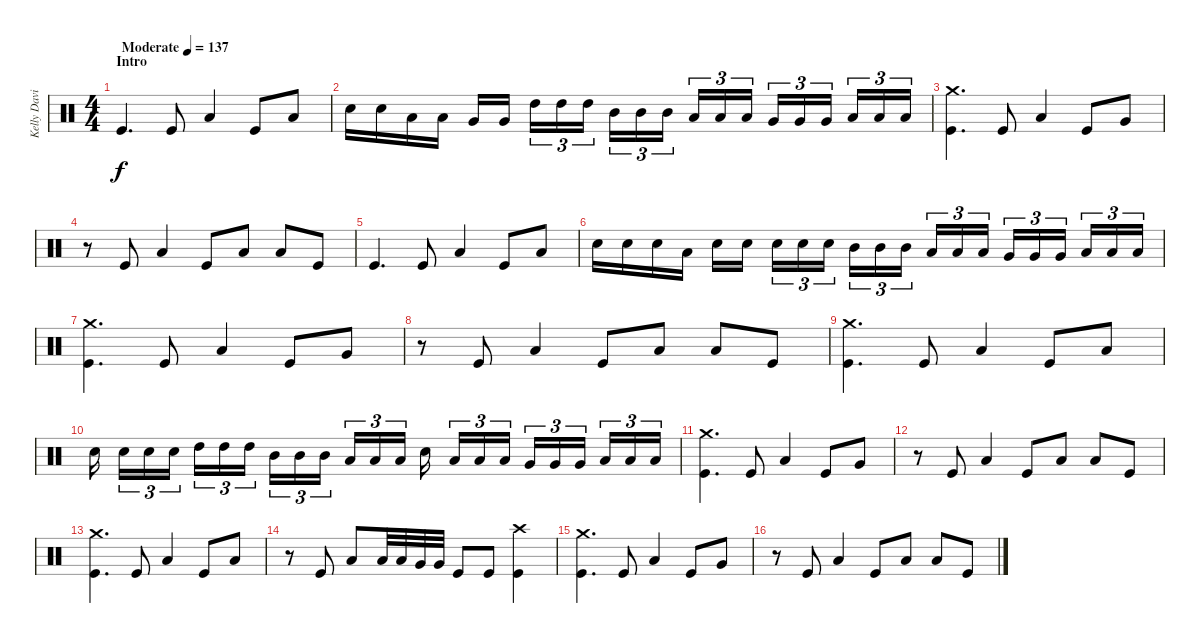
\track ("Kelly David Smith" "Kelly Davi") {instrument percussion}
\staff {score}
\articulation defaults
\ts (4 4)
\section ("" "Intro")
\tempo (137 "Moderate")
\clef neutral
\ks c "Kick (hit)".4{d dy f volume 0} "Kick (hit)".8{volume 13} "Low Tom (hit)".4 "Kick (hit)".8 "Low Tom (hit)".8
|
"Electric Snare (hit)".16 "Electric Snare (hit)".16 "Low Tom (hit)".16 "Low Tom (hit)".16 "Very Low Tom (hit)".16 "Very Low Tom (hit)".16{beam splitsecondary} "High Tom (hit)".16{tu (3 2)} "High Tom (hit)".16{tu (3 2)} "High Tom (hit)".16{tu (3 2)} "Mid Tom (hit)".16{tu (3 2)} "Mid Tom (hit)".16{tu (3 2)} "Mid Tom (hit)".16{tu (3 2) beam splitsecondary} "Low Tom (hit)".16{tu (3 2)} "Low Tom (hit)".16{tu (3 2)} "Low Tom (hit)".16{tu (3 2)} "Very Low Tom (hit)".16{tu (3 2)} "Very Low Tom (hit)".16{tu (3 2)} "Very Low Tom (hit)".16{tu (3 2) beam splitsecondary} "Low Floor Tom (hit)".16{tu (3 2)} "Low Floor Tom (hit)".16{tu (3 2)} "Low Floor Tom (hit)".16{tu (3 2)} |
("Crash medium (hit)" "Kick (hit)").4{d} "Kick (hit)".8 "Low Tom (hit)".4 "Kick (hit)".8 "Very Low Tom (hit)".8 |
r.8 "Kick (hit)".8 "Low Floor Tom (hit)".4 "Kick (hit)".8 "Low Tom (hit)".8 "Low Tom (hit)".8 "Kick (hit)".8 |
"Kick (hit)".4{d} "Kick (hit)".8 "Low Tom (hit)".4 "Kick (hit)".8 "Low Tom (hit)".8 |
"Electric Snare (hit)".16 "Electric Snare (hit)".16 "Electric Snare (hit)".16 "Low Tom (hit)".16 "Electric Snare (hit)".16 "Electric Snare (hit)".16{beam splitsecondary} "Electric Snare (hit)".16{tu (3 2)} "Electric Snare (hit)".16{tu (3 2)} "Electric Snare (hit)".16{tu (3 2)} "Mid Tom (hit)".16{tu (3 2)} "Mid Tom (hit)".16{tu (3 2)} "Mid Tom (hit)".16{tu (3 2) beam splitsecondary} "Low Tom (hit)".16{tu (3 2)} "Low Tom (hit)".16{tu (3 2)} "Low Tom (hit)".16{tu (3 2)} "Very Low Tom (hit)".16{tu (3 2)} "Very Low Tom (hit)".16{tu (3 2)} "Very Low Tom (hit)".16{tu (3 2) beam splitsecondary} "Low Floor Tom (hit)".16{tu (3 2)} "Low Floor Tom (hit)".16{tu (3 2)} "Low Floor Tom (hit)".16{tu (3 2)} |
("Crash medium (hit)" "Kick (hit)").4{d} "Kick (hit)".8 "Low Tom (hit)".4 "Kick (hit)".8 "Very Low Tom (hit)".8 |
r.8 "Kick (hit)".8 "Low Floor Tom (hit)".4 "Kick (hit)".8 "Low Tom (hit)".8 "Low Tom (hit)".8 "Kick (hit)".8 |
("Crash medium (hit)" "Kick (hit)").4{d} "Kick (hit)".8 "Low Tom (hit)".4 "Kick (hit)".8 "Low Tom (hit)".8 |
"Electric Snare (hit)".16{beam splitsecondary} "Electric Snare (hit)".16{tu (3 2)} "Electric Snare (hit)".16{tu (3 2)} "Electric Snare (hit)".16{tu (3 2) beam splitsecondary} "High Tom (hit)".16{tu (3 2)} "High Tom (hit)".16{tu (3 2)} "High Tom (hit)".16{tu (3 2) beam splitsecondary} "Mid Tom (hit)".16{tu (3 2)} "Mid Tom (hit)".16{tu (3 2)} "Mid Tom (hit)".16{tu (3 2) beam splitsecondary} "Low Tom (hit)".16{tu (3 2)} "Low Tom (hit)".16{tu (3 2)} "Low Tom (hit)".16{tu (3 2) beam splitsecondary} "Electric Snare (hit)".16{beam splitsecondary} "Low Tom (hit)".16{tu (3 2)} "Low Tom (hit)".16{tu (3 2)} "Low Tom (hit)".16{tu (3 2)} "Very Low Tom (hit)".16{tu (3 2)} "Very Low Tom (hit)".16{tu (3 2)} "Very Low Tom (hit)".16{tu (3 2) beam splitsecondary} "Low Floor Tom (hit)".16{tu (3 2)} "Low Floor Tom (hit)".16{tu (3 2)} "Low Floor Tom (hit)".16{tu (3 2)} |
("Crash medium (hit)" "Kick (hit)").4{d} "Kick (hit)".8 "Low Tom (hit)".4 "Kick (hit)".8 "Very Low Tom (hit)".8 |
r.8 "Kick (hit)".8 "Low Floor Tom (hit)".4 "Kick (hit)".8 "Low Tom (hit)".8 "Low Tom (hit)".8 "Kick (hit)".8 |
("Crash medium (hit)" "Kick (hit)").4{d} "Kick (hit)".8 "Low Tom (hit)".4 "Kick (hit)".8 "Low Tom (hit)".8 |
r.8 "Kick (hit)".8 "Low Tom (hit)".8 "Low Tom (hit)".32 "Low Tom (hit)".32 "Very Low Tom (hit)".32 "Very Low Tom (hit)".32 "Kick (hit)".8 "Kick (hit)".8 ("Crash high (hit)" "Kick (hit)").4 |
("Crash medium (hit)" "Kick (hit)").4{d} "Kick (hit)".8 "Low Tom (hit)".4 "Kick (hit)".8 "Very Low Tom (hit)".8 |
r.8 "Kick (hit)".8 "Low Floor Tom (hit)".4 "Kick (hit)".8 "Low Tom (hit)".8 "Low Tom (hit)".8 "Kick (hit)".8
